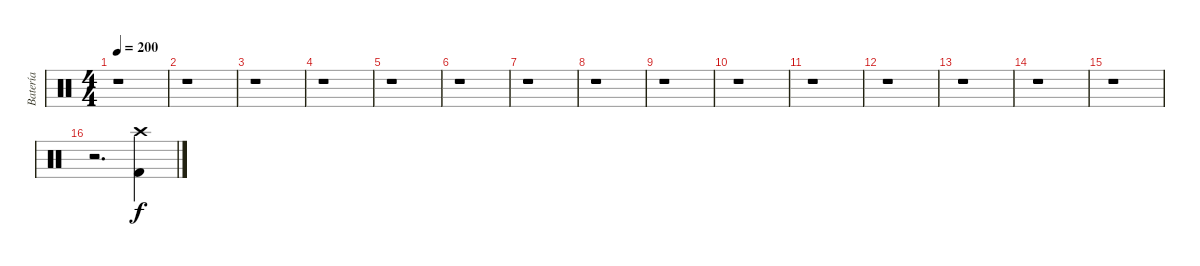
\track ("Batería" "Batería") {instrument percussion}
\staff {score}
\articulation defaults
\ts (4 4)
\tempo 200
\clef neutral
\ks c
r.1{dy p} |
r.1 |
r.1 |
r.1 |
r.1 |
r.1 |
r.1 |
r.1 |
r.1 |
r.1 |
r.1 |
r.1 |
r.1 |
r.1 |
r.1 |
r.2{d} ("Kick (hit) 2" "Crash high (hit)").4{dy f}
